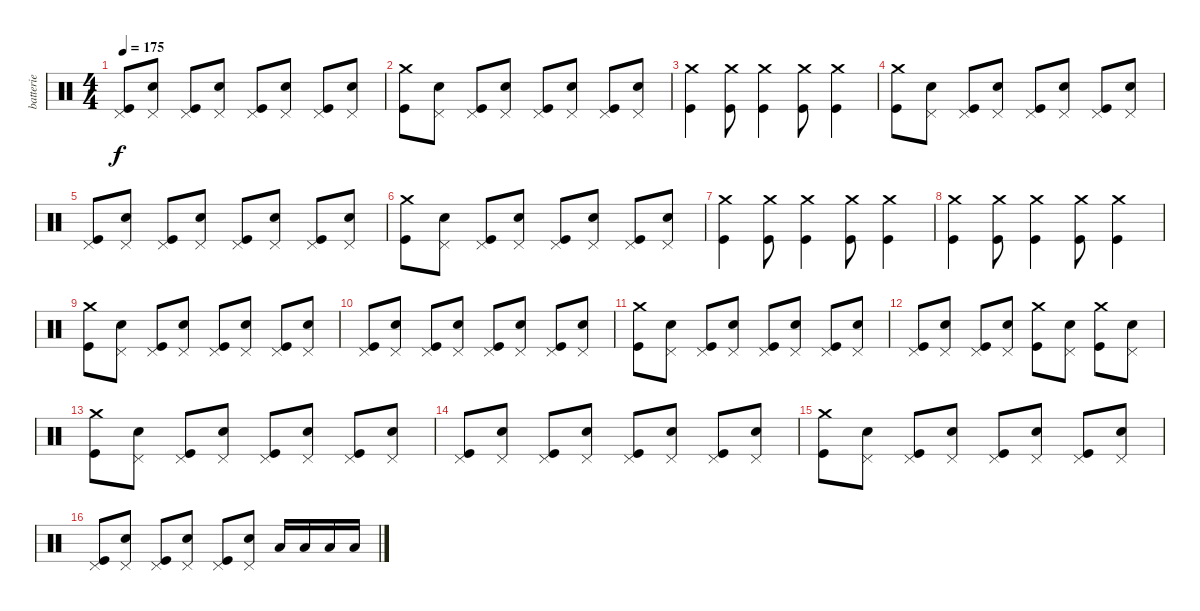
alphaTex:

\track ("batterie" "batterie") {instrument percussion}
\staff {score}
\articulation defaults
\ts (4 4)
\tempo 175
\clef neutral
\ks c
("Pedal Hi-Hat (hit)" "Kick (hit)").8{dy f} ("Pedal Hi-Hat (hit)" "Snare (hit) 2").8 ("Pedal Hi-Hat (hit)" "Kick (hit)").8 ("Pedal Hi-Hat (hit)" "Snare (hit) 2").8 ("Pedal Hi-Hat (hit)" "Kick (hit)").8 ("Pedal Hi-Hat (hit)" "Snare (hit) 2").8 ("Pedal Hi-Hat (hit)" "Kick (hit)").8 ("Pedal Hi-Hat (hit)" "Snare (hit) 2").8 |
("Crash medium (hit)" "Kick (hit)").8 ("Pedal Hi-Hat (hit)" "Snare (hit) 2").8 ("Pedal Hi-Hat (hit)" "Kick (hit)").8 ("Pedal Hi-Hat (hit)" "Snare (hit) 2").8 ("Pedal Hi-Hat (hit)" "Kick (hit)").8 ("Pedal Hi-Hat (hit)" "Snare (hit) 2").8 ("Pedal Hi-Hat (hit)" "Kick (hit)").8 ("Pedal Hi-Hat (hit)" "Snare (hit) 2").8 |
("Crash medium (hit)" "Kick (hit)").4 ("Crash medium (hit)" "Kick (hit)").8 ("Crash medium (hit)" "Kick (hit)").4 ("Crash medium (hit)" "Kick (hit)").8 ("Crash medium (hit)" "Kick (hit)").4 |
("Crash medium (hit)" "Kick (hit)").8 ("Pedal Hi-Hat (hit)" "Snare (hit) 2").8 ("Pedal Hi-Hat (hit)" "Kick (hit)").8 ("Pedal Hi-Hat (hit)" "Snare (hit) 2").8 ("Pedal Hi-Hat (hit)" "Kick (hit)").8 ("Pedal Hi-Hat (hit)" "Snare (hit) 2").8 ("Pedal Hi-Hat (hit)" "Kick (hit)").8 ("Pedal Hi-Hat (hit)" "Snare (hit) 2").8 |
("Pedal Hi-Hat (hit)" "Kick (hit)").8 ("Pedal Hi-Hat (hit)" "Snare (hit) 2").8 ("Pedal Hi-Hat (hit)" "Kick (hit)").8 ("Pedal Hi-Hat (hit)" "Snare (hit) 2").8 ("Pedal Hi-Hat (hit)" "Kick (hit)").8 ("Pedal Hi-Hat (hit)" "Snare (hit) 2").8 ("Pedal Hi-Hat (hit)" "Kick (hit)").8 ("Pedal Hi-Hat (hit)" "Snare (hit) 2").8 |
("Crash medium (hit)" "Kick (hit)").8 ("Pedal Hi-Hat (hit)" "Snare (hit) 2").8 ("Pedal Hi-Hat (hit)" "Kick (hit)").8 ("Pedal Hi-Hat (hit)" "Snare (hit) 2").8 ("Pedal Hi-Hat (hit)" "Kick (hit)").8 ("Pedal Hi-Hat (hit)" "Snare (hit) 2").8 ("Pedal Hi-Hat (hit)" "Kick (hit)").8 ("Pedal Hi-Hat (hit)" "Snare (hit) 2").8 |
("Crash medium (hit)" "Kick (hit)").4 ("Crash medium (hit)" "Kick (hit)").8 ("Crash medium (hit)" "Kick (hit)").4 ("Crash medium (hit)" "Kick (hit)").8 ("Crash medium (hit)" "Kick (hit)").4 |
("Crash medium (hit)" "Kick (hit)").4 ("Crash medium (hit)" "Kick (hit)").8 ("Crash medium (hit)" "Kick (hit)").4 ("Crash medium (hit)" "Kick (hit)").8 ("Crash medium (hit)" "Kick (hit)").4 |
("Crash medium (hit)" "Kick (hit)").8 ("Pedal Hi-Hat (hit)" "Snare (hit) 2").8 ("Pedal Hi-Hat (hit)" "Kick (hit)").8 ("Pedal Hi-Hat (hit)" "Snare (hit) 2").8 ("Pedal Hi-Hat (hit)" "Kick (hit)").8 ("Pedal Hi-Hat (hit)" "Snare (hit) 2").8 ("Pedal Hi-Hat (hit)" "Kick (hit)").8 ("Pedal Hi-Hat (hit)" "Snare (hit) 2").8 |
("Pedal Hi-Hat (hit)" "Kick (hit)").8 ("Pedal Hi-Hat (hit)" "Snare (hit) 2").8 ("Pedal Hi-Hat (hit)" "Kick (hit)").8 ("Pedal Hi-Hat (hit)" "Snare (hit) 2").8 ("Pedal Hi-Hat (hit)" "Kick (hit)").8 ("Pedal Hi-Hat (hit)" "Snare (hit) 2").8 ("Pedal Hi-Hat (hit)" "Kick (hit)").8 ("Pedal Hi-Hat (hit)" "Snare (hit) 2").8 |
("Crash medium (hit)" "Kick (hit)").8 ("Pedal Hi-Hat (hit)" "Snare (hit) 2").8 ("Pedal Hi-Hat (hit)" "Kick (hit)").8 ("Pedal Hi-Hat (hit)" "Snare (hit) 2").8 ("Pedal Hi-Hat (hit)" "Kick (hit)").8 ("Pedal Hi-Hat (hit)" "Snare (hit) 2").8 ("Pedal Hi-Hat (hit)" "Kick (hit)").8 ("Pedal Hi-Hat (hit)" "Snare (hit) 2").8 |
("Pedal Hi-Hat (hit)" "Kick (hit)").8 ("Pedal Hi-Hat (hit)" "Snare (hit) 2").8 ("Pedal Hi-Hat (hit)" "Kick (hit)").8 ("Pedal Hi-Hat (hit)" "Snare (hit) 2").8 ("Crash medium (hit)" "Kick (hit)").8 ("Pedal Hi-Hat (hit)" "Snare (hit) 2").8 ("Crash medium (hit)" "Kick (hit)").8 ("Pedal Hi-Hat (hit)" "Snare (hit) 2").8 |
("Crash medium (hit)" "Kick (hit)").8 ("Pedal Hi-Hat (hit)" "Snare (hit) 2").8 ("Pedal Hi-Hat (hit)" "Kick (hit)").8 ("Pedal Hi-Hat (hit)" "Snare (hit) 2").8 ("Pedal Hi-Hat (hit)" "Kick (hit)").8 ("Pedal Hi-Hat (hit)" "Snare (hit) 2").8 ("Pedal Hi-Hat (hit)" "Kick (hit)").8 ("Pedal Hi-Hat (hit)" "Snare (hit) 2").8 |
("Pedal Hi-Hat (hit)" "Kick (hit)").8 ("Pedal Hi-Hat (hit)" "Snare (hit) 2").8 ("Pedal Hi-Hat (hit)" "Kick (hit)").8 ("Pedal Hi-Hat (hit)" "Snare (hit) 2").8 ("Pedal Hi-Hat (hit)" "Kick (hit)").8 ("Pedal Hi-Hat (hit)" "Snare (hit) 2").8 ("Pedal Hi-Hat (hit)" "Kick (hit)").8 ("Pedal Hi-Hat (hit)" "Snare (hit) 2").8 |
("Crash medium (hit)" "Kick (hit)").8 ("Pedal Hi-Hat (hit)" "Snare (hit) 2").8 ("Pedal Hi-Hat (hit)" "Kick (hit)").8 ("Pedal Hi-Hat (hit)" "Snare (hit) 2").8 ("Pedal Hi-Hat (hit)" "Kick (hit)").8 ("Pedal Hi-Hat (hit)" "Snare (hit) 2").8 ("Pedal Hi-Hat (hit)" "Kick (hit)").8 ("Pedal Hi-Hat (hit)" "Snare (hit) 2").8 |
("Pedal Hi-Hat (hit)" "Kick (hit)").8 ("Pedal Hi-Hat (hit)" "Snare (hit) 2").8 ("Pedal Hi-Hat (hit)" "Kick (hit)").8 ("Pedal Hi-Hat (hit)" "Snare (hit) 2").8 ("Pedal Hi-Hat (hit)" "Kick (hit)").8 ("Pedal Hi-Hat (hit)" "Snare (hit) 2").8 "Low Tom (hit)".16 "Low Tom (hit)".16 "Low Tom (hit)".16 "Low Tom (hit)".16
